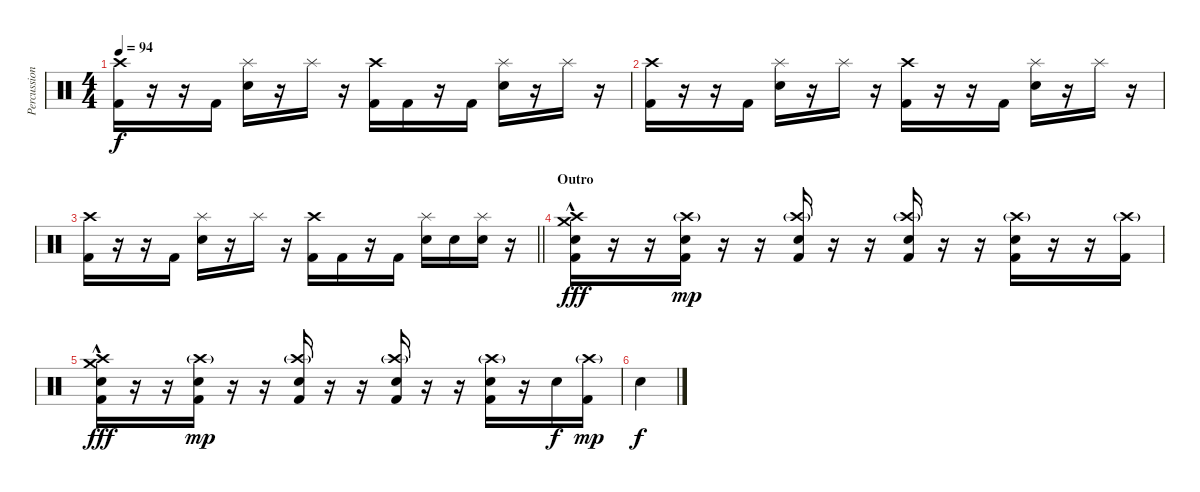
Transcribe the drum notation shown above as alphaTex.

\track ("Percussion" "Percussion") {instrument percussion}
\staff {score}
\articulation defaults
\ts (4 4)
\tempo 94
\clef neutral
\ks c
("Kick (hit) 2" "Crash high (hit)").16{dy f} r.16 r.16 "Kick (hit) 2".16 ("Snare (hit) 2" "Splash (hit)").16 r.16 "Splash (hit)".16 r.16 ("Kick (hit) 2" "Crash high (hit)").16 "Kick (hit) 2".16 r.16 "Kick (hit) 2".16 ("Snare (hit) 2" "Splash (hit)").16 r.16 "Splash (hit)".16 r.16 |
("Kick (hit) 2" "Crash high (hit)").16 r.16 r.16 "Kick (hit) 2".16 ("Snare (hit) 2" "Splash (hit)").16 r.16 "Splash (hit)".16 r.16 ("Kick (hit) 2" "Crash high (hit)").16 r.16 r.16 "Kick (hit) 2".16 ("Snare (hit) 2" "Splash (hit)").16 r.16 "Splash (hit)".16 r.16 |
\barLineRight lightlight
("Kick (hit) 2" "Crash high (hit)").16 r.16 r.16 "Kick (hit) 2".16 ("Snare (hit) 2" "Splash (hit)").16 r.16 "Splash (hit)".16 r.16 ("Kick (hit) 2" "Crash high (hit)").16 "Kick (hit) 2".16 r.16 "Kick (hit) 2".16 ("Snare (hit) 2" "Splash (hit)").16 "Snare (hit) 2".16 ("Snare (hit) 2" "Splash (hit)").16 r.16 |
\section ("" "Outro")
("Kick (hit) 2" "Snare (hit) 2" "Crash medium (hit)"{hac} "Crash high (hit)"{hac}).16{dy fff} r.16 r.16 ("Kick (hit) 2" "Snare (hit) 2" "Crash high (hit)"{g}).16{dy mp} r.16 r.16 ("Kick (hit) 2" "Snare (hit) 2" "Crash high (hit)"{g}).16 r.16 r.16 ("Kick (hit) 2" "Snare (hit) 2" "Crash high (hit)"{g}).16 r.16 r.16 ("Kick (hit) 2" "Snare (hit) 2" "Crash high (hit)"{g}).16 r.16 r.16 ("Kick (hit) 2" "Crash high (hit)"{g}).16 |
("Kick (hit) 2" "Snare (hit) 2" "Crash medium (hit)"{hac} "Crash high (hit)"{hac}).16{dy fff} r.16 r.16 ("Kick (hit) 2" "Snare (hit) 2" "Crash high (hit)"{g}).16{dy mp} r.16 r.16 ("Kick (hit) 2" "Snare (hit) 2" "Crash high (hit)"{g}).16 r.16 r.16 ("Kick (hit) 2" "Snare (hit) 2" "Crash high (hit)"{g}).16 r.16 r.16 ("Kick (hit) 2" "Snare (hit) 2" "Crash high (hit)"{g}).16 r.16 "Snare (hit) 2".16{dy f} ("Kick (hit) 2" "Crash high (hit)"{g}).16{dy mp} |
"Snare (hit) 2".4{dy f}
